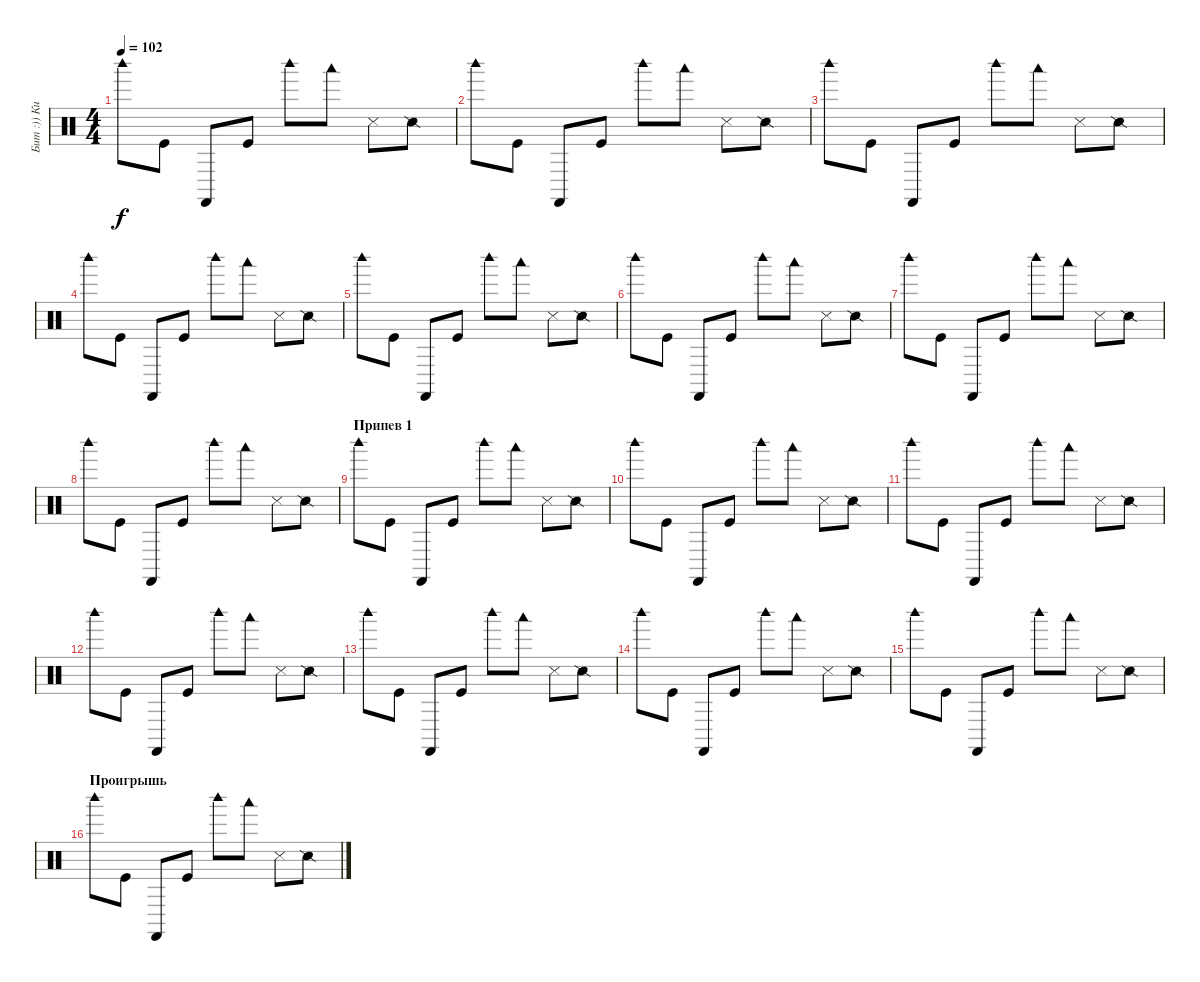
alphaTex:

\track ("Бит :)) Кита" "Бит :)) Ки") {instrument percussion}
\staff {score}
\articulation defaults
\ts (4 4)
\tempo 102
\clef neutral
\ks c "Woodblock high (hit)".8{dy f} "Kick (hit)".8 "Castanets (hit)".8 "Kick (hit)".8 "Woodblock high (hit)".8 "Woodblock low (hit)".8 "Snare (side stick) 3".8 "Snare (side stick) 2".8
|
"Woodblock high (hit)".8 "Kick (hit)".8 "Castanets (hit)".8 "Kick (hit)".8 "Woodblock high (hit)".8 "Woodblock low (hit)".8 "Snare (side stick) 3".8 "Snare (side stick) 2".8 |
"Woodblock high (hit)".8 "Kick (hit)".8 "Castanets (hit)".8 "Kick (hit)".8 "Woodblock high (hit)".8 "Woodblock low (hit)".8 "Snare (side stick) 3".8 "Snare (side stick) 2".8 |
"Woodblock high (hit)".8 "Kick (hit)".8 "Castanets (hit)".8 "Kick (hit)".8 "Woodblock high (hit)".8 "Woodblock low (hit)".8 "Snare (side stick) 3".8 "Snare (side stick) 2".8 |
"Woodblock high (hit)".8 "Kick (hit)".8 "Castanets (hit)".8 "Kick (hit)".8 "Woodblock high (hit)".8 "Woodblock low (hit)".8 "Snare (side stick) 3".8 "Snare (side stick) 2".8 |
"Woodblock high (hit)".8 "Kick (hit)".8 "Castanets (hit)".8 "Kick (hit)".8 "Woodblock high (hit)".8 "Woodblock low (hit)".8 "Snare (side stick) 3".8 "Snare (side stick) 2".8 |
"Woodblock high (hit)".8 "Kick (hit)".8 "Castanets (hit)".8 "Kick (hit)".8 "Woodblock high (hit)".8 "Woodblock low (hit)".8 "Snare (side stick) 3".8 "Snare (side stick) 2".8 |
"Woodblock high (hit)".8 "Kick (hit)".8 "Castanets (hit)".8 "Kick (hit)".8 "Woodblock high (hit)".8 "Woodblock low (hit)".8 "Snare (side stick) 3".8 "Snare (side stick) 2".8 |
\section ("" "Припев 1")
"Woodblock high (hit)".8 "Kick (hit)".8 "Castanets (hit)".8 "Kick (hit)".8 "Woodblock high (hit)".8 "Woodblock low (hit)".8 "Snare (side stick) 3".8 "Snare (side stick) 2".8 |
"Woodblock high (hit)".8 "Kick (hit)".8 "Castanets (hit)".8 "Kick (hit)".8 "Woodblock high (hit)".8 "Woodblock low (hit)".8 "Snare (side stick) 3".8 "Snare (side stick) 2".8 |
"Woodblock high (hit)".8 "Kick (hit)".8 "Castanets (hit)".8 "Kick (hit)".8 "Woodblock high (hit)".8 "Woodblock low (hit)".8 "Snare (side stick) 3".8 "Snare (side stick) 2".8 |
"Woodblock high (hit)".8 "Kick (hit)".8 "Castanets (hit)".8 "Kick (hit)".8 "Woodblock high (hit)".8 "Woodblock low (hit)".8 "Snare (side stick) 3".8 "Snare (side stick) 2".8 |
"Woodblock high (hit)".8 "Kick (hit)".8 "Castanets (hit)".8 "Kick (hit)".8 "Woodblock high (hit)".8 "Woodblock low (hit)".8 "Snare (side stick) 3".8 "Snare (side stick) 2".8 |
"Woodblock high (hit)".8 "Kick (hit)".8 "Castanets (hit)".8 "Kick (hit)".8 "Woodblock high (hit)".8 "Woodblock low (hit)".8 "Snare (side stick) 3".8 "Snare (side stick) 2".8 |
"Woodblock high (hit)".8 "Kick (hit)".8 "Castanets (hit)".8 "Kick (hit)".8 "Woodblock high (hit)".8 "Woodblock low (hit)".8 "Snare (side stick) 3".8 "Snare (side stick) 2".8 |
\section ("" "Проигрышь")
"Woodblock high (hit)".8 "Kick (hit)".8 "Castanets (hit)".8 "Kick (hit)".8 "Woodblock high (hit)".8 "Woodblock low (hit)".8 "Snare (side stick) 3".8 "Snare (side stick) 2".8
